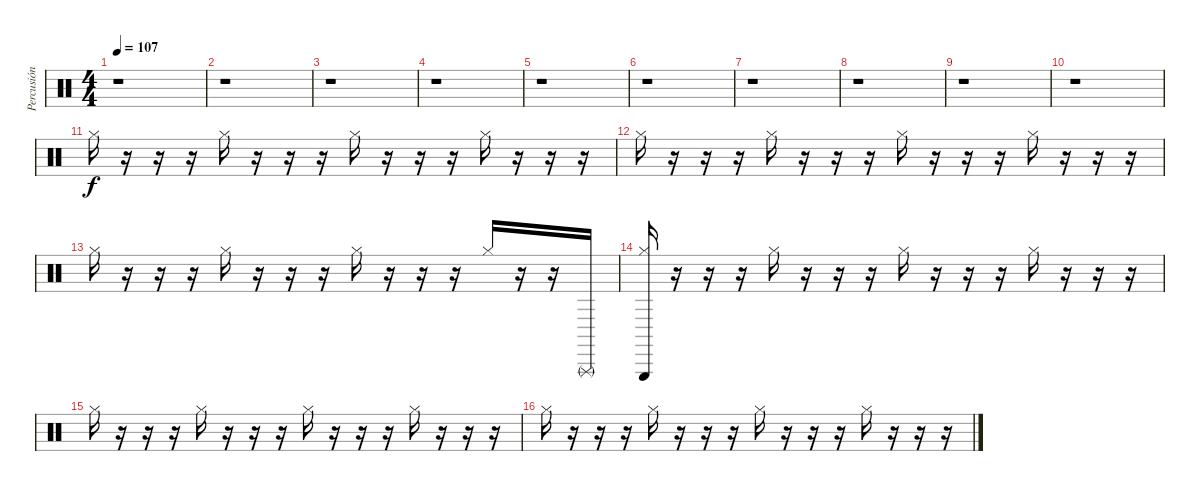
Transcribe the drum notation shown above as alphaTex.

\track ("Percusión" "Percusión") {instrument percussion}
\staff {score}
\articulation defaults
\ts (4 4)
\tempo 107
\clef neutral
\ks c
r.1{dy f} |
r.1 |
r.1 |
r.1 |
r.1 |
r.1 |
r.1 |
r.1 |
r.1 |
r.1 |
"Hi-Hat (closed)".16 r.16 r.16 r.16 "Hi-Hat (closed)".16 r.16 r.16 r.16 "Hi-Hat (closed)".16 r.16 r.16 r.16 "Hi-Hat (closed)".16 r.16 r.16 r.16 |
"Hi-Hat (closed)".16 r.16 r.16 r.16 "Hi-Hat (closed)".16 r.16 r.16 r.16 "Hi-Hat (closed)".16 r.16 r.16 r.16 "Hi-Hat (closed)".16 r.16 r.16 r.16 |
"Hi-Hat (closed)".16 r.16 r.16 r.16 "Hi-Hat (closed)".16 r.16 r.16 r.16 "Hi-Hat (closed)".16 r.16 r.16 r.16 "Hi-Hat (closed)".16 r.16 r.16 "Triangle (rnute)".16 |
("Hi-Hat (closed)" "Triangle (hit)").16 r.16 r.16 r.16 "Hi-Hat (closed)".16 r.16 r.16 r.16 "Hi-Hat (closed)".16 r.16 r.16 r.16 "Hi-Hat (closed)".16 r.16 r.16 r.16 |
"Hi-Hat (closed)".16 r.16 r.16 r.16 "Hi-Hat (closed)".16 r.16 r.16 r.16 "Hi-Hat (closed)".16 r.16 r.16 r.16 "Hi-Hat (closed)".16 r.16 r.16 r.16 |
"Hi-Hat (closed)".16 r.16 r.16 r.16 "Hi-Hat (closed)".16 r.16 r.16 r.16 "Hi-Hat (closed)".16 r.16 r.16 r.16 "Hi-Hat (closed)".16 r.16 r.16 r.16
